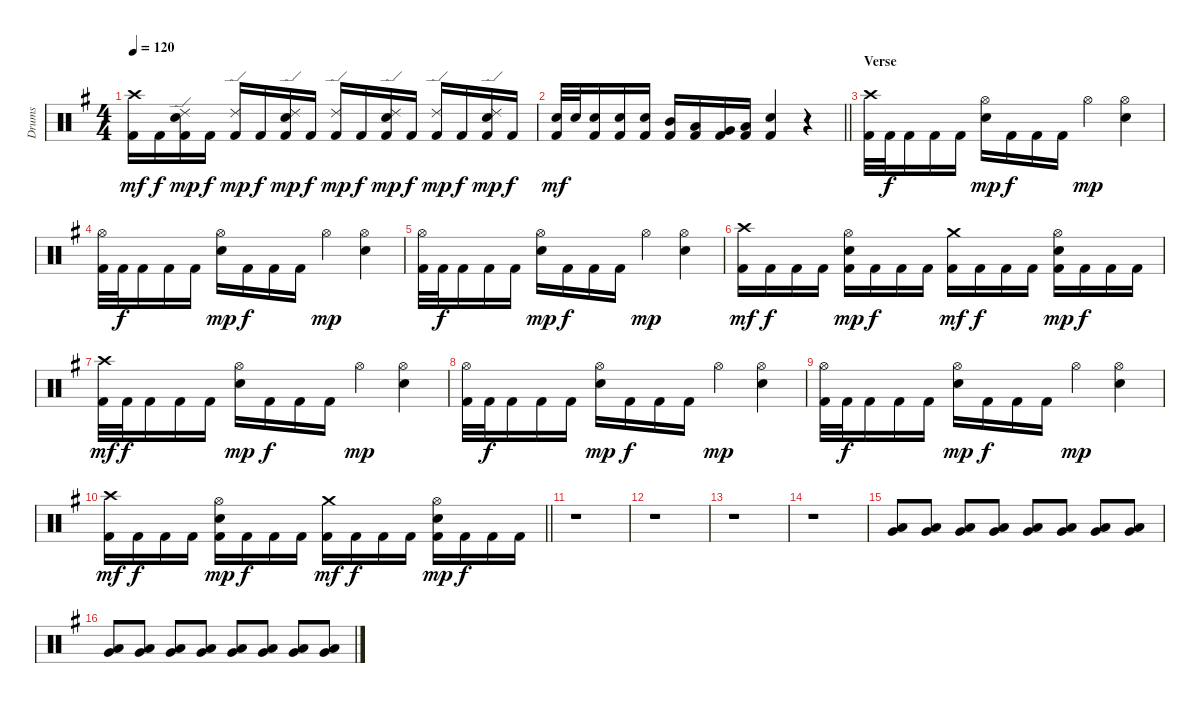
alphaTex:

\track ("Drums" "Drums") {instrument percussion}
\staff {score}
\articulation defaults
\ts (4 4)
\tempo 120
\clef neutral
\ks eminor
("Crash high (hit)" "Kick (hit) 2").16{dy mf} "Kick (hit) 2".16{dy f} ("Ride (edge) 2" "Electric Snare (hit)" "Kick (hit) 2").16{dy mp} "Kick (hit) 2".16{dy f} ("Ride (edge) 2" "Kick (hit) 2").16{dy mp} "Kick (hit) 2".16{dy f} ("Ride (edge) 2" "Electric Snare (hit)" "Kick (hit) 2").16{dy mp} "Kick (hit) 2".16{dy f} ("Ride (edge) 2" "Kick (hit) 2").16{dy mp} "Kick (hit) 2".16{dy f} ("Ride (edge) 2" "Electric Snare (hit)" "Kick (hit) 2").16{dy mp} "Kick (hit) 2".16{dy f} ("Ride (edge) 2" "Kick (hit) 2").16{dy mp} "Kick (hit) 2".16{dy f} ("Ride (edge) 2" "Electric Snare (hit)" "Kick (hit) 2").16{dy mp} "Kick (hit) 2".16{dy f} |
\barLineRight lightlight
("Electric Snare (hit)" "Kick (hit) 2").32{dy mf} "Electric Snare (hit)".32 ("Electric Snare (hit)" "Kick (hit) 2").16 ("Electric Snare (hit)" "Kick (hit) 2").16 ("Electric Snare (hit)" "Kick (hit) 2").16 ("Mid Tom (hit)" "Kick (hit) 2").16 ("Low Tom (hit)" "Kick (hit) 2").16 ("Very Low Tom (hit)" "Kick (hit) 2").16 ("Low Floor Tom (hit)" "Kick (hit) 2").16 ("Electric Snare (hit)" "Kick (hit) 2").4 r.4 |
\section ("" "Verse")
("Crash high (hit)" "Kick (hit) 2").32 "Kick (hit) 2".32{dy f} "Kick (hit) 2".16 "Kick (hit) 2".16 "Kick (hit) 2".16 ("Hi-Hat (open)" "Electric Snare (hit)").16{dy mp} "Kick (hit) 2".16{dy f} "Kick (hit) 2".16 "Kick (hit) 2".16 "Hi-Hat (open)".4{dy mp} ("Hi-Hat (open)" "Electric Snare (hit)").4 |
("Hi-Hat (open)" "Kick (hit) 2").32 "Kick (hit) 2".32{dy f} "Kick (hit) 2".16 "Kick (hit) 2".16 "Kick (hit) 2".16 ("Hi-Hat (open)" "Electric Snare (hit)").16{dy mp} "Kick (hit) 2".16{dy f} "Kick (hit) 2".16 "Kick (hit) 2".16 "Hi-Hat (open)".4{dy mp} ("Hi-Hat (open)" "Electric Snare (hit)").4 |
("Hi-Hat (open)" "Kick (hit) 2").32 "Kick (hit) 2".32{dy f} "Kick (hit) 2".16 "Kick (hit) 2".16 "Kick (hit) 2".16 ("Hi-Hat (open)" "Electric Snare (hit)").16{dy mp} "Kick (hit) 2".16{dy f} "Kick (hit) 2".16 "Kick (hit) 2".16 "Hi-Hat (open)".4{dy mp} ("Hi-Hat (open)" "Electric Snare (hit)").4 |
("Crash high (hit)" "Kick (hit) 2").16{dy mf} "Kick (hit) 2".16{dy f} "Kick (hit) 2".16 "Kick (hit) 2".16 ("Hi-Hat (open)" "Electric Snare (hit)" "Kick (hit) 2").16{dy mp} "Kick (hit) 2".16{dy f} "Kick (hit) 2".16 "Kick (hit) 2".16 ("Crash medium (hit)" "Kick (hit) 2").16{dy mf} "Kick (hit) 2".16{dy f} "Kick (hit) 2".16 "Kick (hit) 2".16 ("Hi-Hat (open)" "Electric Snare (hit)" "Kick (hit) 2").16{dy mp} "Kick (hit) 2".16{dy f} "Kick (hit) 2".16 "Kick (hit) 2".16 |
("Crash high (hit)" "Kick (hit) 2").32{dy mf} "Kick (hit) 2".32{dy f} "Kick (hit) 2".16 "Kick (hit) 2".16 "Kick (hit) 2".16 ("Hi-Hat (open)" "Electric Snare (hit)").16{dy mp} "Kick (hit) 2".16{dy f} "Kick (hit) 2".16 "Kick (hit) 2".16 "Hi-Hat (open)".4{dy mp} ("Hi-Hat (open)" "Electric Snare (hit)").4 |
("Hi-Hat (open)" "Kick (hit) 2").32 "Kick (hit) 2".32{dy f} "Kick (hit) 2".16 "Kick (hit) 2".16 "Kick (hit) 2".16 ("Hi-Hat (open)" "Electric Snare (hit)").16{dy mp} "Kick (hit) 2".16{dy f} "Kick (hit) 2".16 "Kick (hit) 2".16 "Hi-Hat (open)".4{dy mp} ("Hi-Hat (open)" "Electric Snare (hit)").4 |
("Hi-Hat (open)" "Kick (hit) 2").32 "Kick (hit) 2".32{dy f} "Kick (hit) 2".16 "Kick (hit) 2".16 "Kick (hit) 2".16 ("Hi-Hat (open)" "Electric Snare (hit)").16{dy mp} "Kick (hit) 2".16{dy f} "Kick (hit) 2".16 "Kick (hit) 2".16 "Hi-Hat (open)".4{dy mp} ("Hi-Hat (open)" "Electric Snare (hit)").4 |
\barLineRight lightlight
("Crash high (hit)" "Kick (hit) 2").16{dy mf} "Kick (hit) 2".16{dy f} "Kick (hit) 2".16 "Kick (hit) 2".16 ("Hi-Hat (open)" "Electric Snare (hit)" "Kick (hit) 2").16{dy mp} "Kick (hit) 2".16{dy f} "Kick (hit) 2".16 "Kick (hit) 2".16 ("Crash medium (hit)" "Kick (hit) 2").16{dy mf} "Kick (hit) 2".16{dy f} "Kick (hit) 2".16 "Kick (hit) 2".16 ("Hi-Hat (open)" "Electric Snare (hit)" "Kick (hit) 2").16{dy mp} "Kick (hit) 2".16{dy f} "Kick (hit) 2".16 "Kick (hit) 2".16 |
\section ("" "")
r.1 |
r.1 |
r.1 |
r.1{volume 2} |
("Very Low Tom (hit)" "Low Floor Tom (hit)").8{volume 10} ("Very Low Tom (hit)" "Low Floor Tom (hit)").8 ("Very Low Tom (hit)" "Low Floor Tom (hit)").8 ("Very Low Tom (hit)" "Low Floor Tom (hit)").8 ("Very Low Tom (hit)" "Low Floor Tom (hit)").8 ("Very Low Tom (hit)" "Low Floor Tom (hit)").8 ("Very Low Tom (hit)" "Low Floor Tom (hit)").8 ("Very Low Tom (hit)" "Low Floor Tom (hit)").8 |
("Very Low Tom (hit)" "Low Floor Tom (hit)").8 ("Very Low Tom (hit)" "Low Floor Tom (hit)").8 ("Very Low Tom (hit)" "Low Floor Tom (hit)").8 ("Very Low Tom (hit)" "Low Floor Tom (hit)").8 ("Very Low Tom (hit)" "Low Floor Tom (hit)").8 ("Very Low Tom (hit)" "Low Floor Tom (hit)").8 ("Very Low Tom (hit)" "Low Floor Tom (hit)").8 ("Very Low Tom (hit)" "Low Floor Tom (hit)").8
